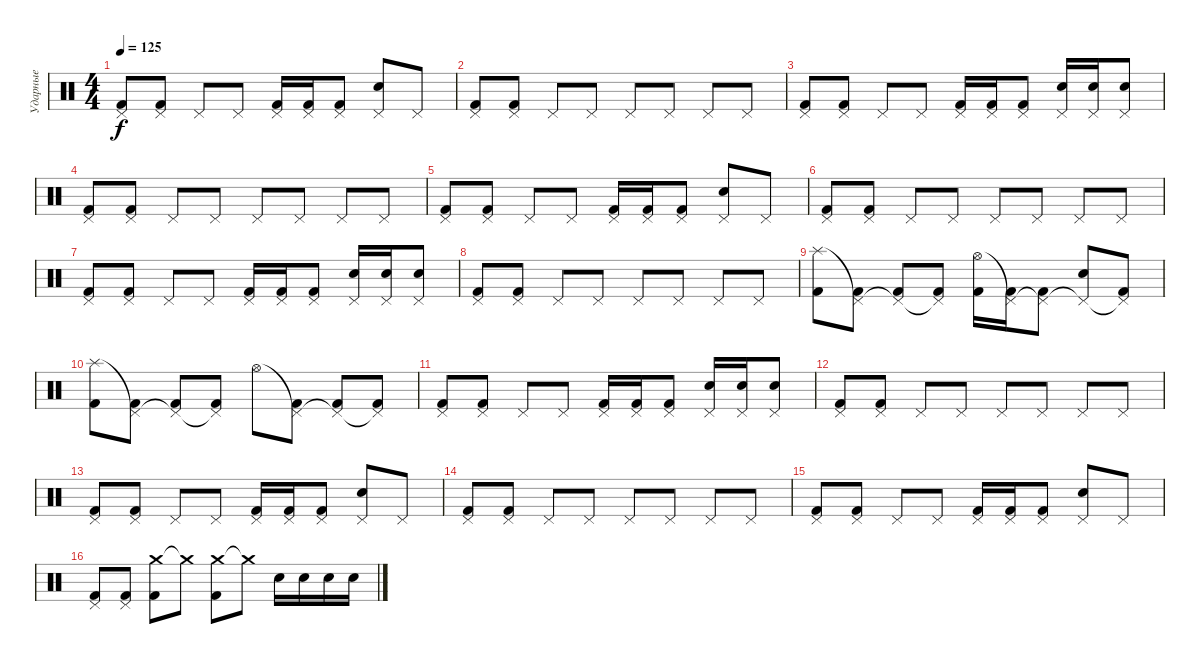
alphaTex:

\track ("Ударные" "Ударные") {instrument percussion}
\staff {score}
\articulation defaults
\ts (4 4)
\tempo 125
\clef neutral
\ks c
("Pedal Hi-Hat (hit)" "Kick (hit) 2").8{dy f} ("Pedal Hi-Hat (hit)" "Kick (hit) 2").8 "Pedal Hi-Hat (hit)".8 "Pedal Hi-Hat (hit)".8 ("Pedal Hi-Hat (hit)" "Kick (hit) 2").16 ("Pedal Hi-Hat (hit)" "Kick (hit) 2").16 ("Pedal Hi-Hat (hit)" "Kick (hit) 2").8 ("Pedal Hi-Hat (hit)" "Electric Snare (hit)").8 "Pedal Hi-Hat (hit)".8 |
("Pedal Hi-Hat (hit)" "Kick (hit) 2").8 ("Pedal Hi-Hat (hit)" "Kick (hit) 2").8 "Pedal Hi-Hat (hit)".8 "Pedal Hi-Hat (hit)".8 "Pedal Hi-Hat (hit)".8 "Pedal Hi-Hat (hit)".8 "Pedal Hi-Hat (hit)".8 "Pedal Hi-Hat (hit)".8 |
("Pedal Hi-Hat (hit)" "Kick (hit) 2").8 ("Pedal Hi-Hat (hit)" "Kick (hit) 2").8 "Pedal Hi-Hat (hit)".8 "Pedal Hi-Hat (hit)".8 ("Pedal Hi-Hat (hit)" "Kick (hit) 2").16 ("Pedal Hi-Hat (hit)" "Kick (hit) 2").16 ("Pedal Hi-Hat (hit)" "Kick (hit) 2").8 ("Pedal Hi-Hat (hit)" "Electric Snare (hit)").16 ("Pedal Hi-Hat (hit)" "Electric Snare (hit)").16 ("Pedal Hi-Hat (hit)" "Electric Snare (hit)").8 |
("Pedal Hi-Hat (hit)" "Kick (hit) 2").8 ("Pedal Hi-Hat (hit)" "Kick (hit) 2").8 "Pedal Hi-Hat (hit)".8 "Pedal Hi-Hat (hit)".8 "Pedal Hi-Hat (hit)".8 "Pedal Hi-Hat (hit)".8 "Pedal Hi-Hat (hit)".8 "Pedal Hi-Hat (hit)".8 |
("Pedal Hi-Hat (hit)" "Kick (hit) 2").8 ("Pedal Hi-Hat (hit)" "Kick (hit) 2").8 "Pedal Hi-Hat (hit)".8 "Pedal Hi-Hat (hit)".8 ("Pedal Hi-Hat (hit)" "Kick (hit) 2").16 ("Pedal Hi-Hat (hit)" "Kick (hit) 2").16 ("Pedal Hi-Hat (hit)" "Kick (hit) 2").8 ("Pedal Hi-Hat (hit)" "Electric Snare (hit)").8 "Pedal Hi-Hat (hit)".8 |
("Pedal Hi-Hat (hit)" "Kick (hit) 2").8 ("Pedal Hi-Hat (hit)" "Kick (hit) 2").8 "Pedal Hi-Hat (hit)".8 "Pedal Hi-Hat (hit)".8 "Pedal Hi-Hat (hit)".8 "Pedal Hi-Hat (hit)".8 "Pedal Hi-Hat (hit)".8 "Pedal Hi-Hat (hit)".8 |
("Pedal Hi-Hat (hit)" "Kick (hit) 2").8 ("Pedal Hi-Hat (hit)" "Kick (hit) 2").8 "Pedal Hi-Hat (hit)".8 "Pedal Hi-Hat (hit)".8 ("Pedal Hi-Hat (hit)" "Kick (hit) 2").16 ("Pedal Hi-Hat (hit)" "Kick (hit) 2").16 ("Pedal Hi-Hat (hit)" "Kick (hit) 2").8 ("Pedal Hi-Hat (hit)" "Electric Snare (hit)").16 ("Pedal Hi-Hat (hit)" "Electric Snare (hit)").16 ("Pedal Hi-Hat (hit)" "Electric Snare (hit)").8 |
("Pedal Hi-Hat (hit)" "Kick (hit) 2").8 ("Pedal Hi-Hat (hit)" "Kick (hit) 2").8 "Pedal Hi-Hat (hit)".8 "Pedal Hi-Hat (hit)".8 "Pedal Hi-Hat (hit)".8 "Pedal Hi-Hat (hit)".8 "Pedal Hi-Hat (hit)".8 "Pedal Hi-Hat (hit)".8 |
("Splash (hit)" "Kick (hit) 2").8 ("Pedal Hi-Hat (hit)"{t} "Kick (hit) 2").8 ("Pedal Hi-Hat (hit)"{t} "Kick (hit) 2").8 ("Pedal Hi-Hat (hit)"{t} "Kick (hit) 2").8 ("Hi-Hat (open)" "Kick (hit) 2").16 ("Pedal Hi-Hat (hit)"{t} "Kick (hit) 2").16 ("Pedal Hi-Hat (hit)"{t} "Kick (hit) 2").8 ("Pedal Hi-Hat (hit)"{t} "Electric Snare (hit)").8 ("Pedal Hi-Hat (hit)"{t} "Kick (hit) 2").8 |
("Splash (hit)" "Kick (hit) 2").8 ("Pedal Hi-Hat (hit)"{t} "Kick (hit) 2").8 ("Pedal Hi-Hat (hit)"{t} "Kick (hit) 2").8 ("Pedal Hi-Hat (hit)"{t} "Kick (hit) 2").8 "Hi-Hat (open)".8 ("Pedal Hi-Hat (hit)"{t} "Kick (hit) 2").8 ("Pedal Hi-Hat (hit)"{t} "Kick (hit) 2").8 ("Pedal Hi-Hat (hit)"{t} "Kick (hit) 2").8 |
("Pedal Hi-Hat (hit)" "Kick (hit) 2").8 ("Pedal Hi-Hat (hit)" "Kick (hit) 2").8 "Pedal Hi-Hat (hit)".8 "Pedal Hi-Hat (hit)".8 ("Pedal Hi-Hat (hit)" "Kick (hit) 2").16 ("Pedal Hi-Hat (hit)" "Kick (hit) 2").16 ("Pedal Hi-Hat (hit)" "Kick (hit) 2").8 ("Pedal Hi-Hat (hit)" "Electric Snare (hit)").16 ("Pedal Hi-Hat (hit)" "Electric Snare (hit)").16 ("Pedal Hi-Hat (hit)" "Electric Snare (hit)").8 |
("Pedal Hi-Hat (hit)" "Kick (hit) 2").8 ("Pedal Hi-Hat (hit)" "Kick (hit) 2").8 "Pedal Hi-Hat (hit)".8 "Pedal Hi-Hat (hit)".8 "Pedal Hi-Hat (hit)".8 "Pedal Hi-Hat (hit)".8 "Pedal Hi-Hat (hit)".8 "Pedal Hi-Hat (hit)".8 |
("Pedal Hi-Hat (hit)" "Kick (hit) 2").8 ("Pedal Hi-Hat (hit)" "Kick (hit) 2").8 "Pedal Hi-Hat (hit)".8 "Pedal Hi-Hat (hit)".8 ("Pedal Hi-Hat (hit)" "Kick (hit) 2").16 ("Pedal Hi-Hat (hit)" "Kick (hit) 2").16 ("Pedal Hi-Hat (hit)" "Kick (hit) 2").8 ("Pedal Hi-Hat (hit)" "Electric Snare (hit)").8 "Pedal Hi-Hat (hit)".8 |
("Pedal Hi-Hat (hit)" "Kick (hit) 2").8 ("Pedal Hi-Hat (hit)" "Kick (hit) 2").8 "Pedal Hi-Hat (hit)".8 "Pedal Hi-Hat (hit)".8 "Pedal Hi-Hat (hit)".8 "Pedal Hi-Hat (hit)".8 "Pedal Hi-Hat (hit)".8 "Pedal Hi-Hat (hit)".8 |
("Pedal Hi-Hat (hit)" "Kick (hit) 2").8 ("Pedal Hi-Hat (hit)" "Kick (hit) 2").8 "Pedal Hi-Hat (hit)".8 "Pedal Hi-Hat (hit)".8 ("Pedal Hi-Hat (hit)" "Kick (hit) 2").16 ("Pedal Hi-Hat (hit)" "Kick (hit) 2").16 ("Pedal Hi-Hat (hit)" "Kick (hit) 2").8 ("Pedal Hi-Hat (hit)" "Electric Snare (hit)").8 "Pedal Hi-Hat (hit)".8 |
("Pedal Hi-Hat (hit)" "Kick (hit) 2").8 ("Pedal Hi-Hat (hit)" "Kick (hit) 2").8 ("Crash medium (hit)" "Kick (hit) 2").8 "Crash medium (hit)"{t}.8 ("Crash medium (hit)" "Kick (hit) 2").8 "Crash medium (hit)"{t}.8 "Electric Snare (hit)".16 "Electric Snare (hit)".16 "Electric Snare (hit)".16 "Electric Snare (hit)".16
